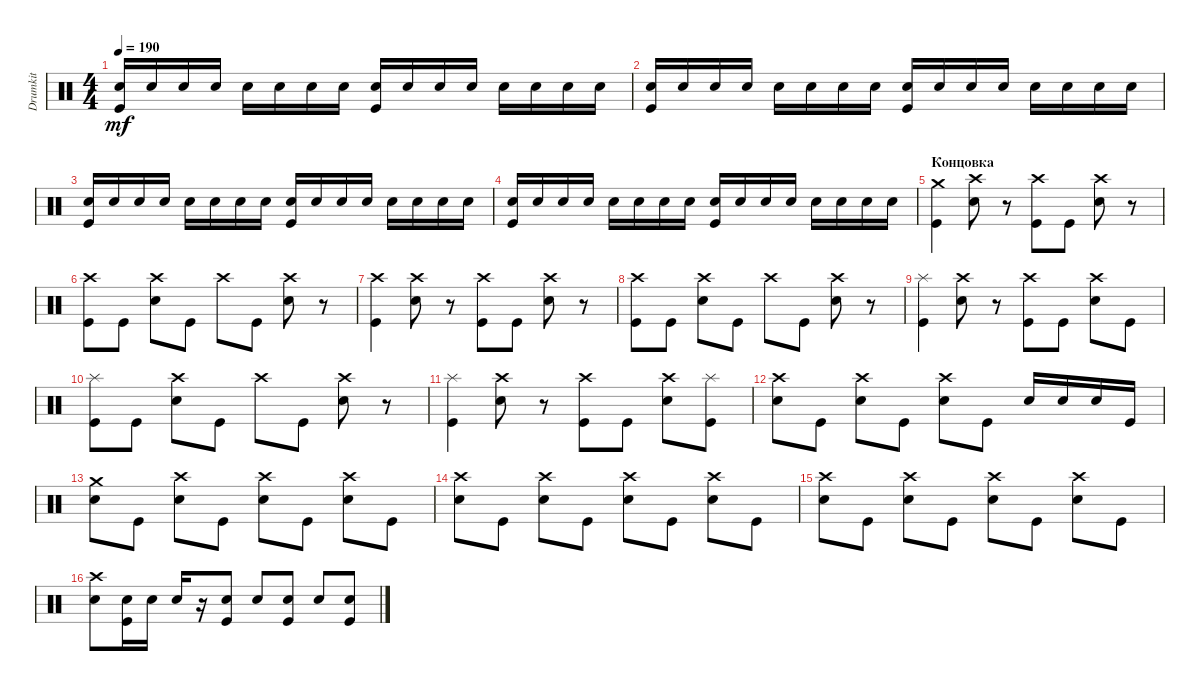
\track ("Drumkit" "Drumkit") {instrument percussion}
\staff {score}
\articulation defaults
\ts (4 4)
\tempo 190
\clef neutral
\ks c
("Snare (hit) 2" "Kick (hit)").16{dy mf} "Snare (hit) 2".16 "Snare (hit) 2".16 "Snare (hit) 2".16 "Snare (hit) 2".16 "Snare (hit) 2".16 "Snare (hit) 2".16 "Snare (hit) 2".16 ("Snare (hit) 2" "Kick (hit)").16 "Snare (hit) 2".16 "Snare (hit) 2".16 "Snare (hit) 2".16 "Snare (hit) 2".16 "Snare (hit) 2".16 "Snare (hit) 2".16 "Snare (hit) 2".16 |
("Snare (hit) 2" "Kick (hit)").16 "Snare (hit) 2".16 "Snare (hit) 2".16 "Snare (hit) 2".16 "Snare (hit) 2".16 "Snare (hit) 2".16 "Snare (hit) 2".16 "Snare (hit) 2".16 ("Snare (hit) 2" "Kick (hit)").16 "Snare (hit) 2".16 "Snare (hit) 2".16 "Snare (hit) 2".16 "Snare (hit) 2".16 "Snare (hit) 2".16 "Snare (hit) 2".16 "Snare (hit) 2".16 |
("Snare (hit) 2" "Kick (hit)").16 "Snare (hit) 2".16 "Snare (hit) 2".16 "Snare (hit) 2".16 "Snare (hit) 2".16 "Snare (hit) 2".16 "Snare (hit) 2".16 "Snare (hit) 2".16 ("Snare (hit) 2" "Kick (hit)").16 "Snare (hit) 2".16 "Snare (hit) 2".16 "Snare (hit) 2".16 "Snare (hit) 2".16 "Snare (hit) 2".16 "Snare (hit) 2".16 "Snare (hit) 2".16 |
("Snare (hit) 2" "Kick (hit)").16 "Snare (hit) 2".16 "Snare (hit) 2".16 "Snare (hit) 2".16 "Snare (hit) 2".16 "Snare (hit) 2".16 "Snare (hit) 2".16 "Snare (hit) 2".16 ("Snare (hit) 2" "Kick (hit)").16 "Snare (hit) 2".16 "Snare (hit) 2".16 "Snare (hit) 2".16 "Snare (hit) 2".16 "Snare (hit) 2".16 "Snare (hit) 2".16 "Snare (hit) 2".16 |
\section ("" "Концовка")
("Kick (hit)" "Crash medium (hit)").4 ("Snare (hit) 2" "Crash high (hit)").8 r.8 ("Kick (hit)" "Crash high (hit)").8 "Kick (hit)".8 ("Snare (hit) 2" "Crash high (hit)").8 r.8 |
("Kick (hit)" "Crash high (hit)").8 "Kick (hit)".8 ("Snare (hit) 2" "Crash high (hit)").8 "Kick (hit)".8 "Crash high (hit)".8 "Kick (hit)".8 ("Snare (hit) 2" "Crash high (hit)").8 r.8 |
("Kick (hit)" "Crash high (hit)").4 ("Snare (hit) 2" "Crash high (hit)").8 r.8 ("Kick (hit)" "Crash high (hit)").8 "Kick (hit)".8 ("Snare (hit) 2" "Crash high (hit)").8 r.8 |
("Kick (hit)" "Crash high (hit)").8 "Kick (hit)".8 ("Snare (hit) 2" "Crash high (hit)").8 "Kick (hit)".8 "Crash high (hit)".8 "Kick (hit)".8 ("Snare (hit) 2" "Crash high (hit)").8 r.8 |
("Kick (hit)" "Splash (hit)").4 ("Snare (hit) 2" "Crash high (hit)").8 r.8 ("Kick (hit)" "Crash high (hit)").8 "Kick (hit)".8 ("Snare (hit) 2" "Crash high (hit)").8 "Kick (hit)".8 |
("Splash (hit)" "Kick (hit)").8 "Kick (hit)".8 ("Snare (hit) 2" "Crash high (hit)").8 "Kick (hit)".8 "Crash high (hit)".8 "Kick (hit)".8 ("Snare (hit) 2" "Crash high (hit)").8 r.8 |
("Kick (hit)" "Splash (hit)").4 ("Snare (hit) 2" "Crash high (hit)").8 r.8 ("Kick (hit)" "Crash high (hit)").8 "Kick (hit)".8 ("Snare (hit) 2" "Crash high (hit)").8 ("Splash (hit)" "Kick (hit)").8 |
("Snare (hit) 2" "Crash high (hit)").8 "Kick (hit)".8 ("Snare (hit) 2" "Crash high (hit)").8 "Kick (hit)".8 ("Snare (hit) 2" "Crash high (hit)").8 "Kick (hit)".8 "Snare (hit) 2".16 "Snare (hit) 2".16 "Snare (hit) 2".16 "Kick (hit)".16 |
("Snare (hit) 2" "Crash medium (hit)").8 "Kick (hit)".8 ("Snare (hit) 2" "Crash high (hit)").8 "Kick (hit)".8 ("Snare (hit) 2" "Crash high (hit)").8 "Kick (hit)".8 ("Snare (hit) 2" "Crash high (hit)").8 "Kick (hit)".8 |
("Snare (hit) 2" "Crash high (hit)").8 "Kick (hit)".8 ("Snare (hit) 2" "Crash high (hit)").8 "Kick (hit)".8 ("Snare (hit) 2" "Crash high (hit)").8 "Kick (hit)".8 ("Snare (hit) 2" "Crash high (hit)").8 "Kick (hit)".8 |
("Snare (hit) 2" "Crash high (hit)").8 "Kick (hit)".8 ("Snare (hit) 2" "Crash high (hit)").8 "Kick (hit)".8 ("Snare (hit) 2" "Crash high (hit)").8 "Kick (hit)".8 ("Snare (hit) 2" "Crash high (hit)").8 "Kick (hit)".8 |
("Snare (hit) 2" "Crash high (hit)").8 ("Kick (hit)" "Snare (hit) 2").16 "Snare (hit) 2".16 "Snare (hit) 2".16 r.16 ("Kick (hit)" "Snare (hit) 2").8 "Snare (hit) 2".8 ("Kick (hit)" "Snare (hit) 2").8 "Snare (hit) 2".8 ("Kick (hit)" "Snare (hit) 2").8
